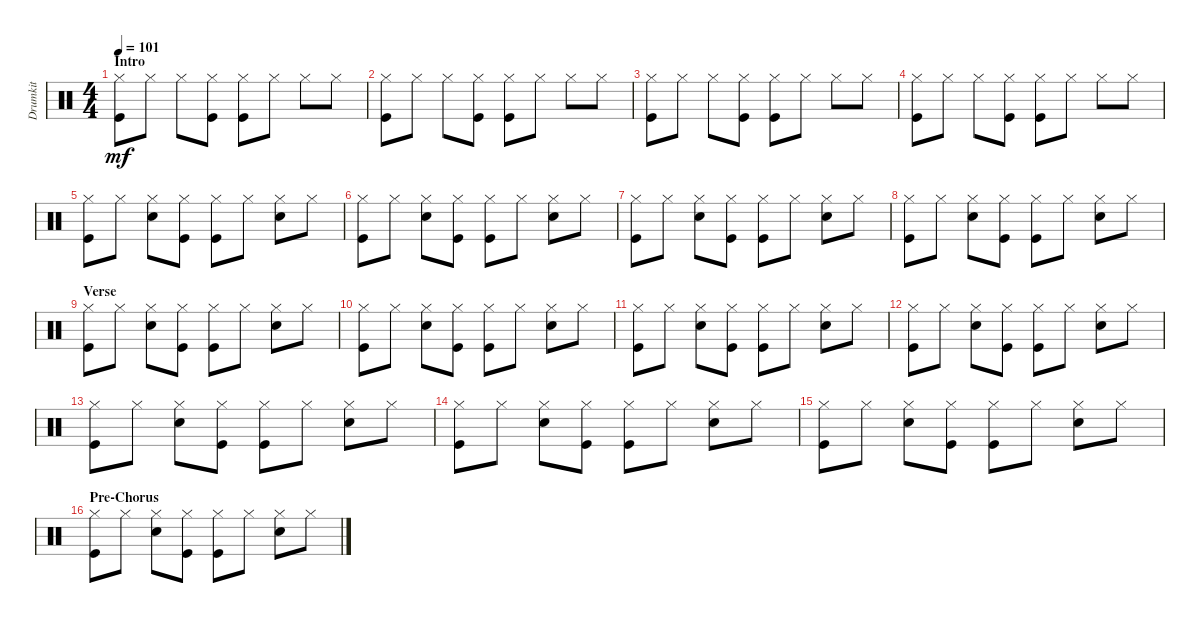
\track ("Drumkit" "Drumkit") {instrument percussion}
\staff {score}
\articulation defaults
\ts (4 4)
\section ("" "Intro")
\tempo 101
\clef neutral
\ks c
("Kick (hit)" "Hi-Hat (closed)").8{dy mf} "Hi-Hat (closed)".8 "Hi-Hat (closed)".8 ("Hi-Hat (closed)" "Kick (hit)").8 ("Hi-Hat (closed)" "Kick (hit)").8 "Hi-Hat (closed)".8 "Hi-Hat (closed)".8 "Hi-Hat (closed)".8 |
("Kick (hit)" "Hi-Hat (closed)").8 "Hi-Hat (closed)".8 "Hi-Hat (closed)".8 ("Hi-Hat (closed)" "Kick (hit)").8 ("Hi-Hat (closed)" "Kick (hit)").8 "Hi-Hat (closed)".8 "Hi-Hat (closed)".8 "Hi-Hat (closed)".8 |
("Kick (hit)" "Hi-Hat (closed)").8 "Hi-Hat (closed)".8 "Hi-Hat (closed)".8 ("Hi-Hat (closed)" "Kick (hit)").8 ("Hi-Hat (closed)" "Kick (hit)").8 "Hi-Hat (closed)".8 "Hi-Hat (closed)".8 "Hi-Hat (closed)".8 |
("Kick (hit)" "Hi-Hat (closed)").8 "Hi-Hat (closed)".8 "Hi-Hat (closed)".8 ("Hi-Hat (closed)" "Kick (hit)").8 ("Hi-Hat (closed)" "Kick (hit)").8 "Hi-Hat (closed)".8 "Hi-Hat (closed)".8 "Hi-Hat (closed)".8 |
("Kick (hit)" "Hi-Hat (closed)").8 "Hi-Hat (closed)".8 ("Hi-Hat (closed)" "Snare (hit) 2").8 ("Hi-Hat (closed)" "Kick (hit)").8 ("Hi-Hat (closed)" "Kick (hit)").8 "Hi-Hat (closed)".8 ("Hi-Hat (closed)" "Snare (hit) 2").8 "Hi-Hat (closed)".8 |
("Kick (hit)" "Hi-Hat (closed)").8 "Hi-Hat (closed)".8 ("Hi-Hat (closed)" "Snare (hit) 2").8 ("Hi-Hat (closed)" "Kick (hit)").8 ("Hi-Hat (closed)" "Kick (hit)").8 "Hi-Hat (closed)".8 ("Hi-Hat (closed)" "Snare (hit) 2").8 "Hi-Hat (closed)".8 |
("Kick (hit)" "Hi-Hat (closed)").8 "Hi-Hat (closed)".8 ("Hi-Hat (closed)" "Snare (hit) 2").8 ("Hi-Hat (closed)" "Kick (hit)").8 ("Hi-Hat (closed)" "Kick (hit)").8 "Hi-Hat (closed)".8 ("Hi-Hat (closed)" "Snare (hit) 2").8 "Hi-Hat (closed)".8 |
("Kick (hit)" "Hi-Hat (closed)").8 "Hi-Hat (closed)".8 ("Hi-Hat (closed)" "Snare (hit) 2").8 ("Hi-Hat (closed)" "Kick (hit)").8 ("Hi-Hat (closed)" "Kick (hit)").8 "Hi-Hat (closed)".8 ("Hi-Hat (closed)" "Snare (hit) 2").8 "Hi-Hat (closed)".8 |
\section ("" "Verse")
("Kick (hit)" "Hi-Hat (closed)").8 "Hi-Hat (closed)".8 ("Hi-Hat (closed)" "Snare (hit) 2").8 ("Hi-Hat (closed)" "Kick (hit)").8 ("Hi-Hat (closed)" "Kick (hit)").8 "Hi-Hat (closed)".8 ("Hi-Hat (closed)" "Snare (hit) 2").8 "Hi-Hat (closed)".8 |
("Kick (hit)" "Hi-Hat (closed)").8 "Hi-Hat (closed)".8 ("Hi-Hat (closed)" "Snare (hit) 2").8 ("Hi-Hat (closed)" "Kick (hit)").8 ("Hi-Hat (closed)" "Kick (hit)").8 "Hi-Hat (closed)".8 ("Hi-Hat (closed)" "Snare (hit) 2").8 "Hi-Hat (closed)".8 |
("Kick (hit)" "Hi-Hat (closed)").8 "Hi-Hat (closed)".8 ("Hi-Hat (closed)" "Snare (hit) 2").8 ("Hi-Hat (closed)" "Kick (hit)").8 ("Hi-Hat (closed)" "Kick (hit)").8 "Hi-Hat (closed)".8 ("Hi-Hat (closed)" "Snare (hit) 2").8 "Hi-Hat (closed)".8 |
("Kick (hit)" "Hi-Hat (closed)").8 "Hi-Hat (closed)".8 ("Hi-Hat (closed)" "Snare (hit) 2").8 ("Hi-Hat (closed)" "Kick (hit)").8 ("Hi-Hat (closed)" "Kick (hit)").8 "Hi-Hat (closed)".8 ("Hi-Hat (closed)" "Snare (hit) 2").8 "Hi-Hat (closed)".8 |
("Kick (hit)" "Hi-Hat (closed)").8 "Hi-Hat (closed)".8 ("Hi-Hat (closed)" "Snare (hit) 2").8 ("Hi-Hat (closed)" "Kick (hit)").8 ("Hi-Hat (closed)" "Kick (hit)").8 "Hi-Hat (closed)".8 ("Hi-Hat (closed)" "Snare (hit) 2").8 "Hi-Hat (closed)".8 |
("Kick (hit)" "Hi-Hat (closed)").8 "Hi-Hat (closed)".8 ("Hi-Hat (closed)" "Snare (hit) 2").8 ("Hi-Hat (closed)" "Kick (hit)").8 ("Hi-Hat (closed)" "Kick (hit)").8 "Hi-Hat (closed)".8 ("Hi-Hat (closed)" "Snare (hit) 2").8 "Hi-Hat (closed)".8 |
("Kick (hit)" "Hi-Hat (closed)").8 "Hi-Hat (closed)".8 ("Hi-Hat (closed)" "Snare (hit) 2").8 ("Hi-Hat (closed)" "Kick (hit)").8 ("Hi-Hat (closed)" "Kick (hit)").8 "Hi-Hat (closed)".8 ("Hi-Hat (closed)" "Snare (hit) 2").8 "Hi-Hat (closed)".8 |
\section ("" "Pre-Chorus")
("Kick (hit)" "Hi-Hat (closed)").8 "Hi-Hat (closed)".8 ("Hi-Hat (closed)" "Snare (hit) 2").8 ("Hi-Hat (closed)" "Kick (hit)").8 ("Hi-Hat (closed)" "Kick (hit)").8 "Hi-Hat (closed)".8 ("Hi-Hat (closed)" "Snare (hit) 2").8 "Hi-Hat (closed)".8
